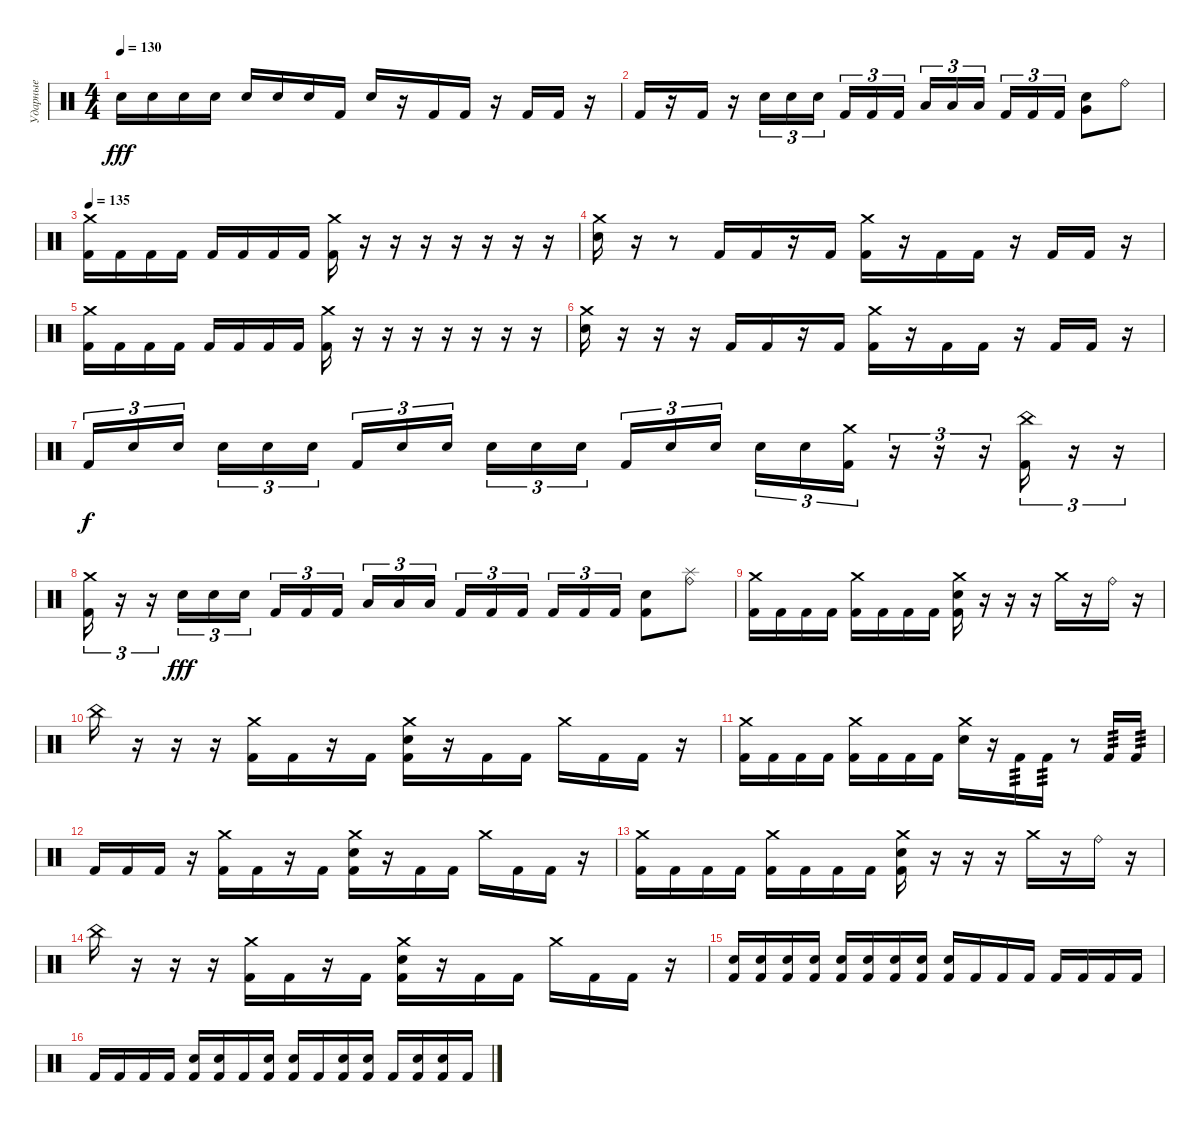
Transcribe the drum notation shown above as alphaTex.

\track ("Ударные" "Ударные") {instrument percussion}
\staff {score}
\articulation defaults
\ts (4 4)
\tempo 130
\clef neutral
\ks c "Electric Snare (hit)".16{dy fff} "Electric Snare (hit)".16 "Electric Snare (hit)".16 "Electric Snare (hit)".16 "Electric Snare (hit)".16 "Electric Snare (hit)".16 "Electric Snare (hit)".16 "Kick (hit) 2".16 "Electric Snare (hit)".16
r.16 "Kick (hit) 2".16 "Kick (hit) 2".16 r.16 "Kick (hit) 2".16 "Kick (hit) 2".16 r.16 |
"Kick (hit) 2".16 r.16 "Kick (hit) 2".16 r.16 "Electric Snare (hit)".16{tu (3 2)} "Electric Snare (hit)".16{tu (3 2)} "Electric Snare (hit)".16{tu (3 2) beam splitsecondary} "Kick (hit) 2".16{tu (3 2)} "Kick (hit) 2".16{tu (3 2)} "Kick (hit) 2".16{tu (3 2)} "Low Tom (hit)".16{tu (3 2)} "Low Tom (hit)".16{tu (3 2)} "Low Tom (hit)".16{tu (3 2) beam splitsecondary} "Kick (hit) 2".16{tu (3 2)} "Kick (hit) 2".16{tu (3 2)} "Kick (hit) 2".16{tu (3 2)} ("Very Low Tom (hit)" "Electric Snare (hit)").8 "Ride (bell)".8 |
\tempo 135
("Crash medium (hit)" "Kick (hit) 2").16 "Kick (hit) 2".16 "Kick (hit) 2".16 "Kick (hit) 2".16 "Kick (hit) 2".16 "Kick (hit) 2".16 "Kick (hit) 2".16 "Kick (hit) 2".16 ("Crash medium (hit)" "Kick (hit) 2").16 r.16 r.16 r.16 r.16 r.16 r.16 r.16 |
("Electric Snare (hit)" "Crash medium (hit)").16 r.16 r.8 "Kick (hit) 2".16 "Kick (hit) 2".16 r.16 "Kick (hit) 2".16 ("Kick (hit) 2" "Crash medium (hit)").16 r.16 "Kick (hit) 2".16 "Kick (hit) 2".16 r.16 "Kick (hit) 2".16 "Kick (hit) 2".16 r.16 |
("Crash medium (hit)" "Kick (hit) 2").16 "Kick (hit) 2".16 "Kick (hit) 2".16 "Kick (hit) 2".16 "Kick (hit) 2".16 "Kick (hit) 2".16 "Kick (hit) 2".16 "Kick (hit) 2".16 ("Crash medium (hit)" "Kick (hit) 2").16 r.16 r.16 r.16 r.16 r.16 r.16 r.16 |
("Electric Snare (hit)" "Crash medium (hit)").16 r.16 r.16 r.16 "Kick (hit) 2".16 "Kick (hit) 2".16 r.16 "Kick (hit) 2".16 ("Kick (hit) 2" "Crash medium (hit)").16 r.16 "Kick (hit) 2".16 "Kick (hit) 2".16 r.16 "Kick (hit) 2".16 "Kick (hit) 2".16 r.16 |
"Kick (hit) 2".16{tu (3 2) dy f} "Electric Snare (hit)".16{tu (3 2)} "Electric Snare (hit)".16{tu (3 2) beam splitsecondary} "Electric Snare (hit)".16{tu (3 2)} "Electric Snare (hit)".16{tu (3 2)} "Electric Snare (hit)".16{tu (3 2)} "Kick (hit) 2".16{tu (3 2)} "Electric Snare (hit)".16{tu (3 2)} "Electric Snare (hit)".16{tu (3 2) beam splitsecondary} "Electric Snare (hit)".16{tu (3 2)} "Electric Snare (hit)".16{tu (3 2)} "Electric Snare (hit)".16{tu (3 2)} "Kick (hit) 2".16{tu (3 2)} "Electric Snare (hit)".16{tu (3 2)} "Electric Snare (hit)".16{tu (3 2) beam splitsecondary} "Electric Snare (hit)".16{tu (3 2)} "Electric Snare (hit)".16{tu (3 2)} ("Crash medium (hit)" "Kick (hit) 2").16{tu (3 2)} r.16{tu (3 2)} r.16{tu (3 2)} r.16{tu (3 2)} ("China (hit)" "Kick (hit) 2").16{tu (3 2)} r.16{tu (3 2)} r.16{tu (3 2)} |
("Kick (hit) 2" "Crash medium (hit)").16{tu (3 2)} r.16{tu (3 2)} r.16{tu (3 2)} "Electric Snare (hit)".16{tu (3 2) dy fff} "Electric Snare (hit)".16{tu (3 2)} "Electric Snare (hit)".16{tu (3 2)} "Kick (hit) 2".16{tu (3 2)} "Kick (hit) 2".16{tu (3 2)} "Kick (hit) 2".16{tu (3 2) beam splitsecondary} "Low Tom (hit)".16{tu (3 2)} "Low Tom (hit)".16{tu (3 2)} "Low Tom (hit)".16{tu (3 2)} "Kick (hit) 2".16{tu (3 2)} "Kick (hit) 2".16{tu (3 2)} "Kick (hit) 2".16{tu (3 2) beam splitsecondary} "Kick (hit) 2".16{tu (3 2)} "Kick (hit) 2".16{tu (3 2)} "Kick (hit) 2".16{tu (3 2)} ("Electric Snare (hit)" "Kick (hit) 2").8 ("Splash (hit)" "Ride (bell)").8 |
("Crash medium (hit)" "Kick (hit) 2").16 "Kick (hit) 2".16 "Kick (hit) 2".16 "Kick (hit) 2".16 ("Crash medium (hit)" "Kick (hit) 2").16 "Kick (hit) 2".16 "Kick (hit) 2".16 "Kick (hit) 2".16 ("Crash medium (hit)" "Electric Snare (hit)" "Kick (hit) 2").16 r.16 r.16 r.16 "Crash medium (hit)".16 r.16 "Ride (bell)".16 r.16 |
"China (hit)".16 r.16 r.16 r.16 ("Crash medium (hit)" "Kick (hit) 2").16 "Kick (hit) 2".16 r.16 "Kick (hit) 2".16 ("Crash medium (hit)" "Electric Snare (hit)" "Kick (hit) 2").16 r.16 "Kick (hit) 2".16 "Kick (hit) 2".16 "Crash medium (hit)".16 "Kick (hit) 2".16 "Kick (hit) 2".16 r.16 |
("Kick (hit) 2" "Crash medium (hit)").16 "Kick (hit) 2".16 "Kick (hit) 2".16 "Kick (hit) 2".16 ("Kick (hit) 2" "Crash medium (hit)").16 "Kick (hit) 2".16 "Kick (hit) 2".16 "Kick (hit) 2".16 ("Electric Snare (hit)" "Crash medium (hit)").16 r.16 "Kick (hit) 2".16{tp 3} "Kick (hit) 2".16{tp 3} r.8 "Kick (hit) 2".16{tp 3} "Kick (hit) 2".16{tp 3} |
"Kick (hit) 2".16 "Kick (hit) 2".16 "Kick (hit) 2".16 r.16 ("Kick (hit) 2" "Crash medium (hit)").16 "Kick (hit) 2".16 r.16 "Kick (hit) 2".16 ("Kick (hit) 2" "Electric Snare (hit)" "Crash medium (hit)").16 r.16 "Kick (hit) 2".16 "Kick (hit) 2".16 "Crash medium (hit)".16 "Kick (hit) 2".16 "Kick (hit) 2".16 r.16 |
("Crash medium (hit)" "Kick (hit) 2").16 "Kick (hit) 2".16 "Kick (hit) 2".16 "Kick (hit) 2".16 ("Crash medium (hit)" "Kick (hit) 2").16 "Kick (hit) 2".16 "Kick (hit) 2".16 "Kick (hit) 2".16 ("Crash medium (hit)" "Electric Snare (hit)" "Kick (hit) 2").16 r.16 r.16 r.16 "Crash medium (hit)".16 r.16 "Ride (bell)".16 r.16 |
"China (hit)".16 r.16 r.16 r.16 ("Crash medium (hit)" "Kick (hit) 2").16 "Kick (hit) 2".16 r.16 "Kick (hit) 2".16 ("Crash medium (hit)" "Electric Snare (hit)" "Kick (hit) 2").16 r.16 "Kick (hit) 2".16 "Kick (hit) 2".16 "Crash medium (hit)".16 "Kick (hit) 2".16 "Kick (hit) 2".16 r.16 |
("Kick (hit) 2" "Electric Snare (hit)").16 ("Kick (hit) 2" "Electric Snare (hit)").16 ("Kick (hit) 2" "Electric Snare (hit)").16 ("Kick (hit) 2" "Electric Snare (hit)").16 ("Kick (hit) 2" "Electric Snare (hit)").16 ("Kick (hit) 2" "Electric Snare (hit)").16 ("Kick (hit) 2" "Electric Snare (hit)").16 ("Kick (hit) 2" "Electric Snare (hit)").16 ("Kick (hit) 2" "Electric Snare (hit)").16 "Kick (hit) 2".16 "Kick (hit) 2".16 "Kick (hit) 2".16 "Kick (hit) 2".16 "Kick (hit) 2".16 "Kick (hit) 2".16 "Kick (hit) 2".16 |
"Kick (hit) 2".16 "Kick (hit) 2".16 "Kick (hit) 2".16 "Kick (hit) 2".16 ("Kick (hit) 2" "Electric Snare (hit)").16 ("Kick (hit) 2" "Electric Snare (hit)").16 "Kick (hit) 2".16 ("Kick (hit) 2" "Electric Snare (hit)").16 ("Kick (hit) 2" "Electric Snare (hit)").16 "Kick (hit) 2".16 ("Kick (hit) 2" "Electric Snare (hit)").16 ("Kick (hit) 2" "Electric Snare (hit)").16 "Kick (hit) 2".16 ("Kick (hit) 2" "Electric Snare (hit)").16 ("Kick (hit) 2" "Electric Snare (hit)").16 "Kick (hit) 2".16
